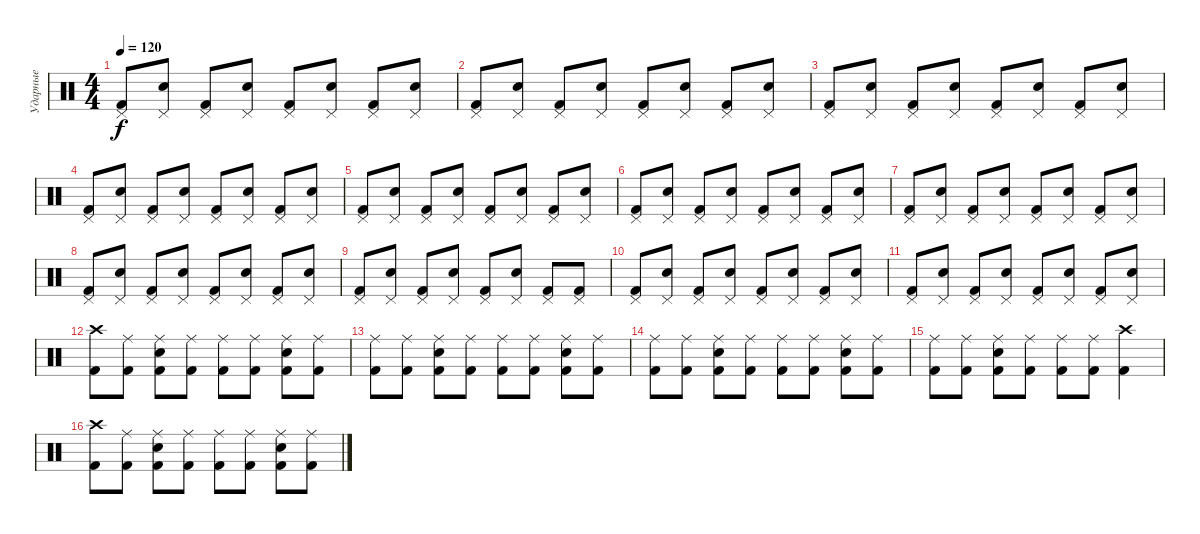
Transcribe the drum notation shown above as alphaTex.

\track ("Ударные" "Ударные") {instrument percussion}
\staff {score}
\articulation defaults
\ts (4 4)
\tempo 120
\clef neutral
\ks c
("Pedal Hi-Hat (hit)" "Kick (hit) 2").8{dy f} ("Pedal Hi-Hat (hit)" "Snare (hit) 2").8 ("Pedal Hi-Hat (hit)" "Kick (hit) 2").8 ("Pedal Hi-Hat (hit)" "Snare (hit) 2").8 ("Pedal Hi-Hat (hit)" "Kick (hit) 2").8 ("Pedal Hi-Hat (hit)" "Snare (hit) 2").8 ("Pedal Hi-Hat (hit)" "Kick (hit) 2").8 ("Pedal Hi-Hat (hit)" "Snare (hit) 2").8 |
("Pedal Hi-Hat (hit)" "Kick (hit) 2").8 ("Pedal Hi-Hat (hit)" "Snare (hit) 2").8 ("Pedal Hi-Hat (hit)" "Kick (hit) 2").8 ("Pedal Hi-Hat (hit)" "Snare (hit) 2").8 ("Pedal Hi-Hat (hit)" "Kick (hit) 2").8 ("Pedal Hi-Hat (hit)" "Snare (hit) 2").8 ("Pedal Hi-Hat (hit)" "Kick (hit) 2").8 ("Pedal Hi-Hat (hit)" "Snare (hit) 2").8 |
("Pedal Hi-Hat (hit)" "Kick (hit) 2").8 ("Pedal Hi-Hat (hit)" "Snare (hit) 2").8 ("Pedal Hi-Hat (hit)" "Kick (hit) 2").8 ("Pedal Hi-Hat (hit)" "Snare (hit) 2").8 ("Pedal Hi-Hat (hit)" "Kick (hit) 2").8 ("Pedal Hi-Hat (hit)" "Snare (hit) 2").8 ("Pedal Hi-Hat (hit)" "Kick (hit) 2").8 ("Pedal Hi-Hat (hit)" "Snare (hit) 2").8 |
("Pedal Hi-Hat (hit)" "Kick (hit) 2").8 ("Pedal Hi-Hat (hit)" "Snare (hit) 2").8 ("Pedal Hi-Hat (hit)" "Kick (hit) 2").8 ("Pedal Hi-Hat (hit)" "Snare (hit) 2").8 ("Pedal Hi-Hat (hit)" "Kick (hit) 2").8 ("Pedal Hi-Hat (hit)" "Snare (hit) 2").8 ("Pedal Hi-Hat (hit)" "Kick (hit) 2").8 ("Pedal Hi-Hat (hit)" "Snare (hit) 2").8 |
("Pedal Hi-Hat (hit)" "Kick (hit) 2").8 ("Pedal Hi-Hat (hit)" "Snare (hit) 2").8 ("Pedal Hi-Hat (hit)" "Kick (hit) 2").8 ("Pedal Hi-Hat (hit)" "Snare (hit) 2").8 ("Pedal Hi-Hat (hit)" "Kick (hit) 2").8 ("Pedal Hi-Hat (hit)" "Snare (hit) 2").8 ("Pedal Hi-Hat (hit)" "Kick (hit) 2").8 ("Pedal Hi-Hat (hit)" "Snare (hit) 2").8 |
("Pedal Hi-Hat (hit)" "Kick (hit) 2").8 ("Pedal Hi-Hat (hit)" "Snare (hit) 2").8 ("Pedal Hi-Hat (hit)" "Kick (hit) 2").8 ("Pedal Hi-Hat (hit)" "Snare (hit) 2").8 ("Pedal Hi-Hat (hit)" "Kick (hit) 2").8 ("Pedal Hi-Hat (hit)" "Snare (hit) 2").8 ("Pedal Hi-Hat (hit)" "Kick (hit) 2").8 ("Pedal Hi-Hat (hit)" "Snare (hit) 2").8 |
("Pedal Hi-Hat (hit)" "Kick (hit) 2").8 ("Pedal Hi-Hat (hit)" "Snare (hit) 2").8 ("Pedal Hi-Hat (hit)" "Kick (hit) 2").8 ("Pedal Hi-Hat (hit)" "Snare (hit) 2").8 ("Pedal Hi-Hat (hit)" "Kick (hit) 2").8 ("Pedal Hi-Hat (hit)" "Snare (hit) 2").8 ("Pedal Hi-Hat (hit)" "Kick (hit) 2").8 ("Pedal Hi-Hat (hit)" "Snare (hit) 2").8 |
("Pedal Hi-Hat (hit)" "Kick (hit) 2").8 ("Pedal Hi-Hat (hit)" "Snare (hit) 2").8 ("Pedal Hi-Hat (hit)" "Kick (hit) 2").8 ("Pedal Hi-Hat (hit)" "Snare (hit) 2").8 ("Pedal Hi-Hat (hit)" "Kick (hit) 2").8 ("Pedal Hi-Hat (hit)" "Snare (hit) 2").8 ("Pedal Hi-Hat (hit)" "Kick (hit) 2").8 ("Pedal Hi-Hat (hit)" "Snare (hit) 2").8 |
("Pedal Hi-Hat (hit)" "Kick (hit) 2").8 ("Pedal Hi-Hat (hit)" "Snare (hit) 2").8 ("Pedal Hi-Hat (hit)" "Kick (hit) 2").8 ("Pedal Hi-Hat (hit)" "Snare (hit) 2").8 ("Pedal Hi-Hat (hit)" "Kick (hit) 2").8 ("Pedal Hi-Hat (hit)" "Snare (hit) 2").8 ("Pedal Hi-Hat (hit)" "Kick (hit) 2").8 ("Pedal Hi-Hat (hit)" "Kick (hit) 2").8 |
("Pedal Hi-Hat (hit)" "Kick (hit) 2").8 ("Pedal Hi-Hat (hit)" "Snare (hit) 2").8 ("Pedal Hi-Hat (hit)" "Kick (hit) 2").8 ("Pedal Hi-Hat (hit)" "Snare (hit) 2").8 ("Pedal Hi-Hat (hit)" "Kick (hit) 2").8 ("Pedal Hi-Hat (hit)" "Snare (hit) 2").8 ("Pedal Hi-Hat (hit)" "Kick (hit) 2").8 ("Pedal Hi-Hat (hit)" "Snare (hit) 2").8 |
("Pedal Hi-Hat (hit)" "Kick (hit) 2").8 ("Pedal Hi-Hat (hit)" "Snare (hit) 2").8 ("Pedal Hi-Hat (hit)" "Kick (hit) 2").8 ("Pedal Hi-Hat (hit)" "Snare (hit) 2").8 ("Pedal Hi-Hat (hit)" "Kick (hit) 2").8 ("Pedal Hi-Hat (hit)" "Snare (hit) 2").8 ("Pedal Hi-Hat (hit)" "Kick (hit) 2").8 ("Pedal Hi-Hat (hit)" "Snare (hit) 2").8 |
("Crash high (hit)" "Kick (hit) 2").8 ("Ride (middle)" "Kick (hit) 2").8 ("Ride (middle)" "Snare (hit) 2" "Kick (hit) 2").8 ("Ride (middle)" "Kick (hit) 2").8 ("Ride (middle)" "Kick (hit) 2").8 ("Ride (middle)" "Kick (hit) 2").8 ("Ride (middle)" "Snare (hit) 2" "Kick (hit) 2").8 ("Ride (middle)" "Kick (hit) 2").8 |
("Ride (middle)" "Kick (hit) 2").8 ("Ride (middle)" "Kick (hit) 2").8 ("Ride (middle)" "Snare (hit) 2" "Kick (hit) 2").8 ("Ride (middle)" "Kick (hit) 2").8 ("Ride (middle)" "Kick (hit) 2").8 ("Ride (middle)" "Kick (hit) 2").8 ("Ride (middle)" "Snare (hit) 2" "Kick (hit) 2").8 ("Ride (middle)" "Kick (hit) 2").8 |
("Ride (middle)" "Kick (hit) 2").8 ("Ride (middle)" "Kick (hit) 2").8 ("Ride (middle)" "Snare (hit) 2" "Kick (hit) 2").8 ("Ride (middle)" "Kick (hit) 2").8 ("Ride (middle)" "Kick (hit) 2").8 ("Ride (middle)" "Kick (hit) 2").8 ("Ride (middle)" "Snare (hit) 2" "Kick (hit) 2").8 ("Ride (middle)" "Kick (hit) 2").8 |
("Ride (middle)" "Kick (hit) 2").8 ("Ride (middle)" "Kick (hit) 2").8 ("Ride (middle)" "Snare (hit) 2" "Kick (hit) 2").8 ("Ride (middle)" "Kick (hit) 2").8 ("Ride (middle)" "Kick (hit) 2").8 ("Ride (middle)" "Kick (hit) 2").8 ("Crash high (hit)" "Kick (hit) 2").4 |
("Crash high (hit)" "Kick (hit) 2").8 ("Ride (middle)" "Kick (hit) 2").8 ("Ride (middle)" "Snare (hit) 2" "Kick (hit) 2").8 ("Ride (middle)" "Kick (hit) 2").8 ("Ride (middle)" "Kick (hit) 2").8 ("Ride (middle)" "Kick (hit) 2").8 ("Ride (middle)" "Snare (hit) 2" "Kick (hit) 2").8 ("Ride (middle)" "Kick (hit) 2").8
